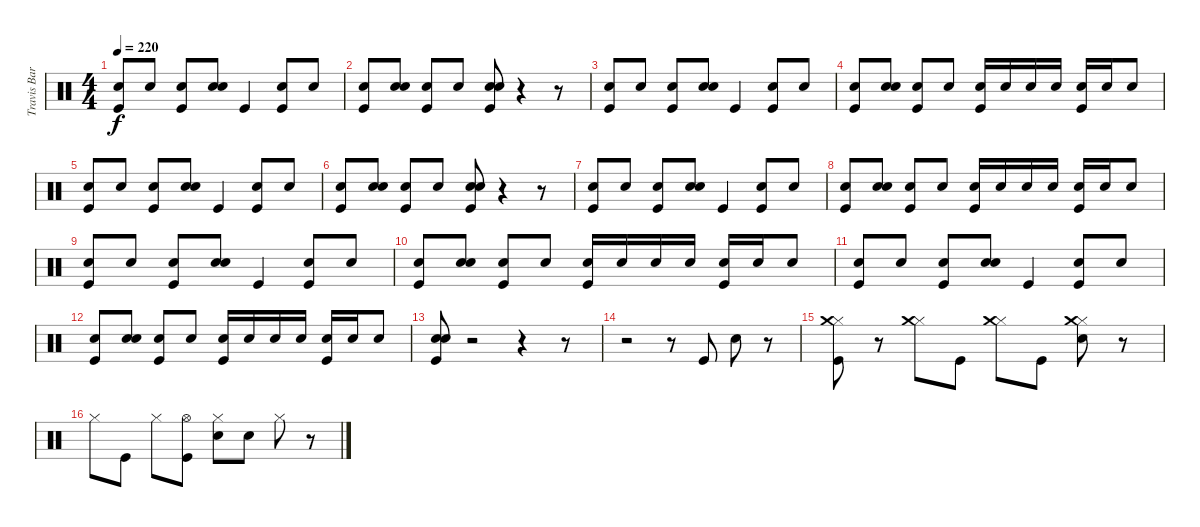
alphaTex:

\track ("Travis Barker (Drums)" "Travis Bar") {instrument percussion}
\staff {score}
\articulation defaults
\ts (4 4)
\tempo 220
\clef neutral
\ks c
("Electric Snare (hit)" "Kick (hit)").8{dy f} "Electric Snare (hit)".8 ("Electric Snare (hit)" "Kick (hit)").8 ("Electric Snare (hit)" "Electric Snare (hit)").8 "Kick (hit)".4 ("Electric Snare (hit)" "Kick (hit)").8 "Electric Snare (hit)".8 |
("Electric Snare (hit)" "Kick (hit)").8 ("Electric Snare (hit)" "Electric Snare (hit)").8 ("Electric Snare (hit)" "Kick (hit)").8 "Electric Snare (hit)".8 ("Electric Snare (hit)" "Electric Snare (hit)" "Kick (hit)").8 r.4 r.8 |
("Electric Snare (hit)" "Kick (hit)").8 "Electric Snare (hit)".8 ("Electric Snare (hit)" "Kick (hit)").8 ("Electric Snare (hit)" "Electric Snare (hit)").8 "Kick (hit)".4 ("Electric Snare (hit)" "Kick (hit)").8 "Electric Snare (hit)".8 |
("Electric Snare (hit)" "Kick (hit)").8 ("Electric Snare (hit)" "Electric Snare (hit)").8 ("Electric Snare (hit)" "Kick (hit)").8 "Electric Snare (hit)".8 ("Electric Snare (hit)" "Kick (hit)").16 "Electric Snare (hit)".16 "Electric Snare (hit)".16 "Electric Snare (hit)".16 ("Electric Snare (hit)" "Kick (hit)").16 "Electric Snare (hit)".16 "Electric Snare (hit)".8 |
("Electric Snare (hit)" "Kick (hit)").8 "Electric Snare (hit)".8 ("Electric Snare (hit)" "Kick (hit)").8 ("Electric Snare (hit)" "Electric Snare (hit)").8 "Kick (hit)".4 ("Electric Snare (hit)" "Kick (hit)").8 "Electric Snare (hit)".8 |
("Electric Snare (hit)" "Kick (hit)").8 ("Electric Snare (hit)" "Electric Snare (hit)").8 ("Electric Snare (hit)" "Kick (hit)").8 "Electric Snare (hit)".8 ("Electric Snare (hit)" "Electric Snare (hit)" "Kick (hit)").8 r.4 r.8 |
("Electric Snare (hit)" "Kick (hit)").8 "Electric Snare (hit)".8 ("Electric Snare (hit)" "Kick (hit)").8 ("Electric Snare (hit)" "Electric Snare (hit)").8 "Kick (hit)".4 ("Electric Snare (hit)" "Kick (hit)").8 "Electric Snare (hit)".8 |
("Electric Snare (hit)" "Kick (hit)").8 ("Electric Snare (hit)" "Electric Snare (hit)").8 ("Electric Snare (hit)" "Kick (hit)").8 "Electric Snare (hit)".8 ("Electric Snare (hit)" "Kick (hit)").16 "Electric Snare (hit)".16 "Electric Snare (hit)".16 "Electric Snare (hit)".16 ("Electric Snare (hit)" "Kick (hit)").16 "Electric Snare (hit)".16 "Electric Snare (hit)".8 |
("Electric Snare (hit)" "Kick (hit)").8 "Electric Snare (hit)".8 ("Electric Snare (hit)" "Kick (hit)").8 ("Electric Snare (hit)" "Electric Snare (hit)").8 "Kick (hit)".4 ("Electric Snare (hit)" "Kick (hit)").8 "Electric Snare (hit)".8 |
("Electric Snare (hit)" "Kick (hit)").8 ("Electric Snare (hit)" "Electric Snare (hit)").8 ("Electric Snare (hit)" "Kick (hit)").8 "Electric Snare (hit)".8 ("Electric Snare (hit)" "Kick (hit)").16 "Electric Snare (hit)".16 "Electric Snare (hit)".16 "Electric Snare (hit)".16 ("Electric Snare (hit)" "Kick (hit)").16 "Electric Snare (hit)".16 "Electric Snare (hit)".8 |
("Electric Snare (hit)" "Kick (hit)").8 "Electric Snare (hit)".8 ("Electric Snare (hit)" "Kick (hit)").8 ("Electric Snare (hit)" "Electric Snare (hit)").8 "Kick (hit)".4 ("Electric Snare (hit)" "Kick (hit)").8 "Electric Snare (hit)".8 |
("Electric Snare (hit)" "Kick (hit)").8 ("Electric Snare (hit)" "Electric Snare (hit)").8 ("Electric Snare (hit)" "Kick (hit)").8 "Electric Snare (hit)".8 ("Electric Snare (hit)" "Kick (hit)").16 "Electric Snare (hit)".16 "Electric Snare (hit)".16 "Electric Snare (hit)".16 ("Electric Snare (hit)" "Kick (hit)").16 "Electric Snare (hit)".16 "Electric Snare (hit)".8 |
("Electric Snare (hit)" "Electric Snare (hit)" "Kick (hit)").8 r.2 r.4 r.8 |
r.2 r.8 "Kick (hit)".8 "Electric Snare (hit)".8 r.8 |
("Kick (hit)" "Hi-Hat (closed)" "Crash medium (hit)").8 r.8 ("Hi-Hat (closed)" "Crash medium (hit)").8 "Kick (hit)".8 ("Hi-Hat (closed)" "Crash medium (hit)").8 "Kick (hit)".8 ("Electric Snare (hit)" "Hi-Hat (closed)" "Crash medium (hit)").8 r.8 |
"Hi-Hat (closed)".8 "Kick (hit)".8 "Hi-Hat (closed)".8 ("Kick (hit)" "Hi-Hat (open)").8 ("Electric Snare (hit)" "Hi-Hat (closed)").8 "Electric Snare (hit)".8 "Hi-Hat (closed)".8 r.8
